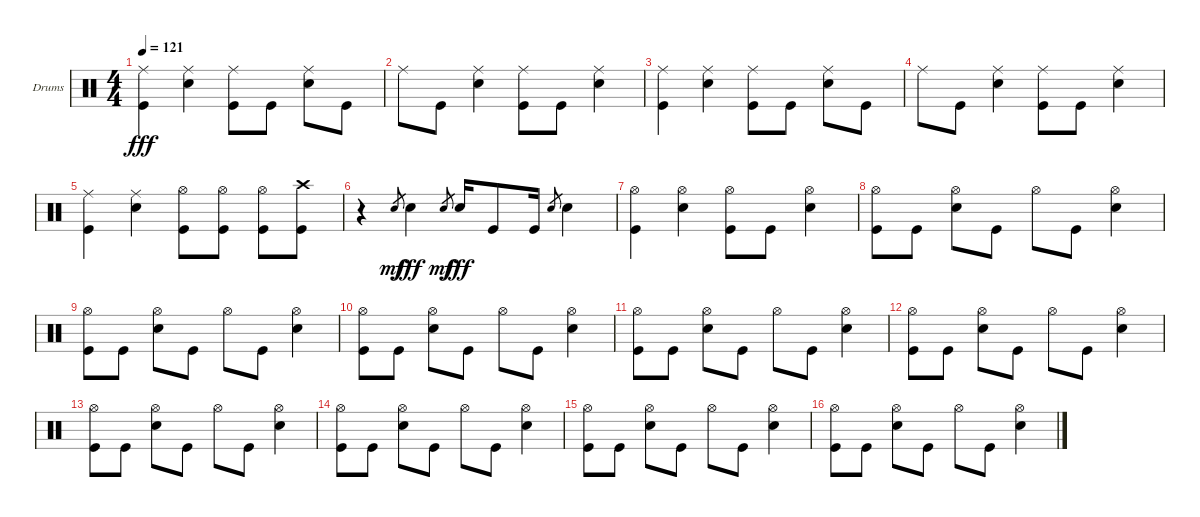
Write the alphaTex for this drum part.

\bracketExtendMode groupsimilarinstruments
\firstSystemTrackNameOrientation horizontal
\otherSystemsTrackNameOrientation horizontal
\track ("Drumkit" "Drums") {instrument percussion}
\staff {score}
\articulation defaults
\ts (4 4)
\tempo 121
\clef neutral
\ks c
("Kick (hit)" "Ride (middle)").4{dy fff} ("Snare (hit) 2" "Ride (middle)").4 ("Kick (hit)" "Ride (middle)").8 "Kick (hit)".8 ("Snare (hit) 2" "Ride (middle)").8 "Kick (hit)".8 |
"Ride (middle)".8 "Kick (hit)".8 ("Snare (hit) 2" "Ride (middle)").4 ("Kick (hit)" "Ride (middle)").8 "Kick (hit)".8 ("Snare (hit) 2" "Ride (middle)").4 |
("Kick (hit)" "Ride (middle)").4 ("Snare (hit) 2" "Ride (middle)").4 ("Kick (hit)" "Ride (middle)").8 "Kick (hit)".8 ("Snare (hit) 2" "Ride (middle)").8 "Kick (hit)".8 |
"Ride (middle)".8 "Kick (hit)".8 ("Snare (hit) 2" "Ride (middle)").4 ("Kick (hit)" "Ride (middle)").8 "Kick (hit)".8 ("Snare (hit) 2" "Ride (middle)").4 |
("Kick (hit)" "Ride (middle)").4 ("Snare (hit) 2" "Ride (middle)").4 ("Kick (hit)" "Hi-Hat (open)").8 ("Kick (hit)" "Hi-Hat (open)").8 ("Hi-Hat (open)" "Kick (hit)").8 ("Kick (hit)" "Crash high (hit)").8 |
r.4 "Snare (hit) 2".8{gr dy mf} "Snare (hit) 2".4{dy fff} "Snare (hit) 2".8{gr dy mf} "Snare (hit) 2".16{dy fff} "Kick (hit)".8 "Kick (hit)".16 "Snare (hit) 2".8{gr} "Snare (hit) 2".4 |
("Kick (hit)" "Hi-Hat (open)").4 ("Hi-Hat (open)" "Snare (hit) 2").4 ("Kick (hit)" "Hi-Hat (open)").8 "Kick (hit)".8 ("Snare (hit) 2" "Hi-Hat (open)").4 |
("Kick (hit)" "Hi-Hat (open)").8 "Kick (hit)".8 ("Snare (hit) 2" "Hi-Hat (open)").8 "Kick (hit)".8 "Hi-Hat (open)".8 "Kick (hit)".8 ("Snare (hit) 2" "Hi-Hat (open)").4 |
("Kick (hit)" "Hi-Hat (open)").8 "Kick (hit)".8 ("Snare (hit) 2" "Hi-Hat (open)").8 "Kick (hit)".8 "Hi-Hat (open)".8 "Kick (hit)".8 ("Snare (hit) 2" "Hi-Hat (open)").4 |
("Kick (hit)" "Hi-Hat (open)").8 "Kick (hit)".8 ("Snare (hit) 2" "Hi-Hat (open)").8 "Kick (hit)".8 "Hi-Hat (open)".8 "Kick (hit)".8 ("Snare (hit) 2" "Hi-Hat (open)").4 |
("Kick (hit)" "Hi-Hat (open)").8 "Kick (hit)".8 ("Snare (hit) 2" "Hi-Hat (open)").8 "Kick (hit)".8 "Hi-Hat (open)".8 "Kick (hit)".8 ("Snare (hit) 2" "Hi-Hat (open)").4 |
("Kick (hit)" "Hi-Hat (open)").8 "Kick (hit)".8 ("Snare (hit) 2" "Hi-Hat (open)").8 "Kick (hit)".8 "Hi-Hat (open)".8 "Kick (hit)".8 ("Snare (hit) 2" "Hi-Hat (open)").4 |
("Kick (hit)" "Hi-Hat (open)").8 "Kick (hit)".8 ("Snare (hit) 2" "Hi-Hat (open)").8 "Kick (hit)".8 "Hi-Hat (open)".8 "Kick (hit)".8 ("Snare (hit) 2" "Hi-Hat (open)").4 |
("Kick (hit)" "Hi-Hat (open)").8 "Kick (hit)".8 ("Snare (hit) 2" "Hi-Hat (open)").8 "Kick (hit)".8 "Hi-Hat (open)".8 "Kick (hit)".8 ("Snare (hit) 2" "Hi-Hat (open)").4 |
("Kick (hit)" "Hi-Hat (open)").8 "Kick (hit)".8 ("Snare (hit) 2" "Hi-Hat (open)").8 "Kick (hit)".8 "Hi-Hat (open)".8 "Kick (hit)".8 ("Snare (hit) 2" "Hi-Hat (open)").4 |
("Kick (hit)" "Hi-Hat (open)").8 "Kick (hit)".8 ("Snare (hit) 2" "Hi-Hat (open)").8 "Kick (hit)".8 "Hi-Hat (open)".8 "Kick (hit)".8 ("Snare (hit) 2" "Hi-Hat (open)").4
